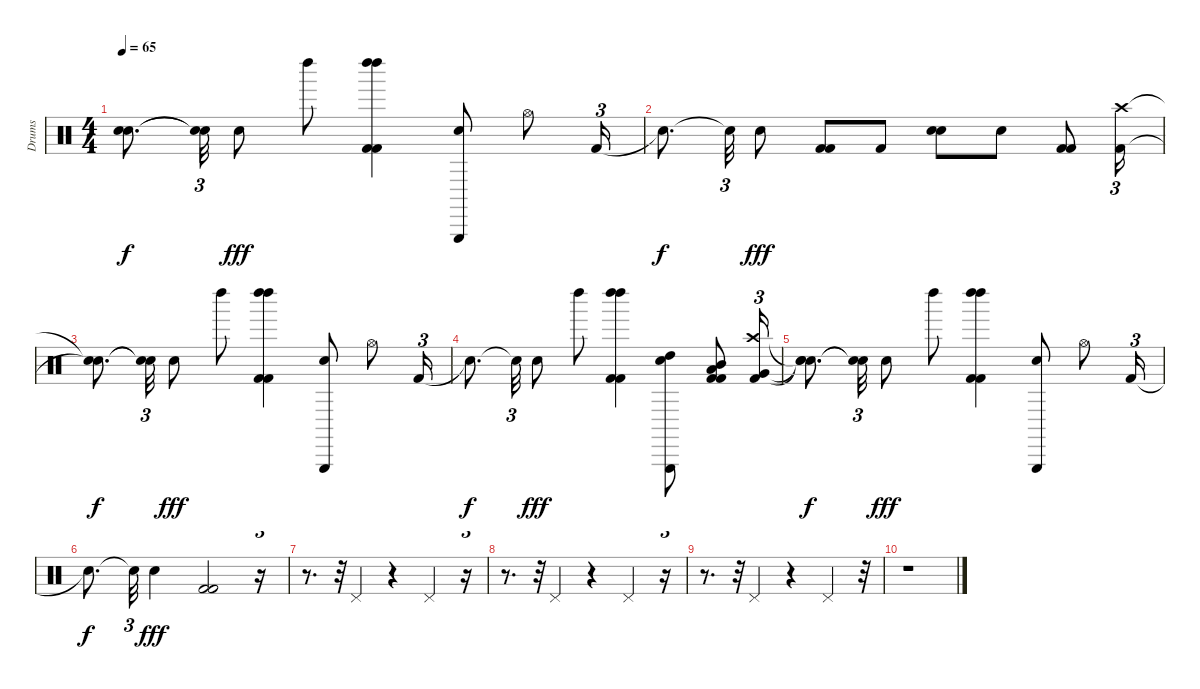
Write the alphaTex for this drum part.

\track ("Drums" "Drums") {instrument percussion}
\staff {score}
\articulation defaults
\ts (4 4)
\tempo 65
\clef neutral
\ks c
("Snare (hit)"{t} "Snare (hit)"{t}).8{d dy f} ("Snare (hit)"{t} "Snare (hit)"{t}).32{tu (3 2)} "Electric Snare (hit)".8{dy fff} "Left Maraca (hit)".8 ("Kick (hit) 2" "Left Maraca (hit)" "Kick (hit) 2" "Left Maraca (hit)").4 ("Triangle (hit)" "Electric Snare (hit)").8 "Hi-Hat (open)".8 "Kick (hit) 2".16{tu (3 2)} |
"Snare (hit)"{t}.8{d dy f} "Snare (hit)"{t}.32{tu (3 2)} "Electric Snare (hit)".8{dy fff} ("Kick (hit) 2" "Kick (hit) 2").8 "Kick (hit) 2".8 ("Electric Snare (hit)" "Electric Snare (hit)").8 "Electric Snare (hit)".8 ("Kick (hit) 2" "Kick (hit) 2").8 ("Kick (hit) 2" "Crash high (hit)").16{tu (3 2)} |
("Snare (hit)"{t} "Snare (hit)"{t}).8{d dy f} ("Snare (hit)"{t} "Snare (hit)"{t}).32{tu (3 2)} "Electric Snare (hit)".8{dy fff} "Left Maraca (hit)".8 ("Kick (hit) 2" "Left Maraca (hit)" "Kick (hit) 2" "Left Maraca (hit)").4 ("Triangle (hit)" "Electric Snare (hit)").8 "Hi-Hat (open)".8 "Kick (hit) 2".16{tu (3 2)} |
"Snare (hit)"{t}.8{d dy f} "Snare (hit)"{t}.32{tu (3 2)} "Electric Snare (hit)".8{dy fff} "Left Maraca (hit)".8 ("Kick (hit) 2" "Left Maraca (hit)" "Kick (hit) 2" "Left Maraca (hit)").4 ("Triangle (hit)" "Electric Snare (hit)" "High Tom (hit)").8 ("Kick (hit) 2" "Mid Tom (hit)" "Kick (hit) 2" "Low Tom (hit)").8 ("Very Low Tom (hit)" "Kick (hit) 2" "Crash high (hit)").16{tu (3 2)} |
("Snare (hit)"{t} "Snare (hit)"{t} "Snare (hit)"{t}).8{d dy f} ("Snare (hit)"{t} "Snare (hit)"{t}).32{tu (3 2)} "Electric Snare (hit)".8{dy fff} "Left Maraca (hit)".8 ("Kick (hit) 2" "Left Maraca (hit)" "Kick (hit) 2" "Left Maraca (hit)").4 ("Triangle (hit)" "Electric Snare (hit)").8 "Hi-Hat (open)".8 "Kick (hit) 2".16{tu (3 2)} |
"Snare (hit)"{t}.8{d dy f} "Snare (hit)"{t}.32{tu (3 2)} "Electric Snare (hit)".4{dy fff} ("Kick (hit) 2" "Kick (hit) 2").2 r.16{tu (3 2)} |
r.8{d} r.32{tu (3 2)} "Pedal Hi-Hat (hit)".4 r.4 "Pedal Hi-Hat (hit)".4 r.16{tu (3 2)} |
r.8{d} r.32{tu (3 2)} "Pedal Hi-Hat (hit)".4 r.4 "Pedal Hi-Hat (hit)".4 r.16{tu (3 2)} |
r.8{d} r.32{tu (3 2)} "Pedal Hi-Hat (hit)".4 r.4 "Pedal Hi-Hat (hit)".4 r.32 |
r.1
